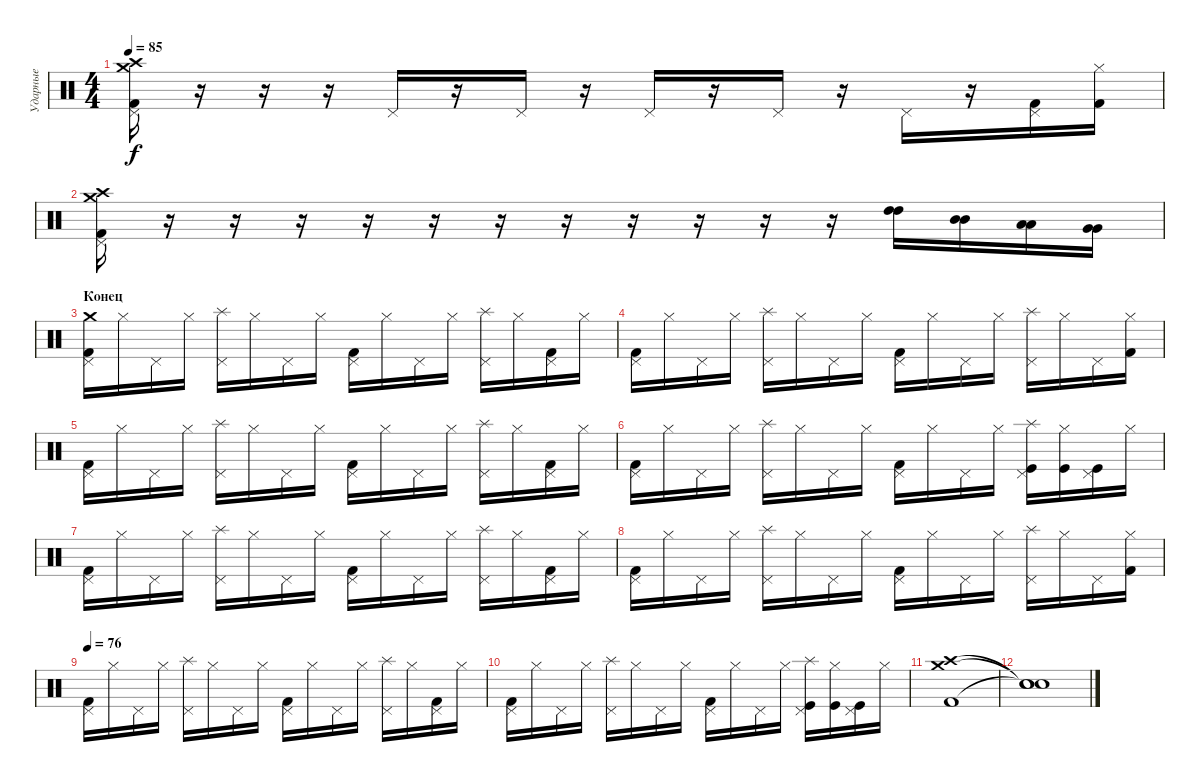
\track ("Ударные" "Ударные") {instrument percussion}
\staff {score}
\articulation defaults
\ts (4 4)
\tempo 85
\clef neutral
\ks c
("Kick (hit) 2" "Pedal Hi-Hat (hit)" "Crash medium (hit)" "Crash high (hit)").16{dy f} r.16 r.16 r.16 "Pedal Hi-Hat (hit)".16 r.16 "Pedal Hi-Hat (hit)".16 r.16 "Pedal Hi-Hat (hit)".16 r.16 "Pedal Hi-Hat (hit)".16 r.16 "Pedal Hi-Hat (hit)".16 r.16 ("Kick (hit) 2" "Pedal Hi-Hat (hit)").16 ("Kick (hit) 2" "Hi-Hat (closed)").16 |
("Kick (hit) 2" "Pedal Hi-Hat (hit)" "Crash medium (hit)" "Crash high (hit)").16 r.16 r.16 r.16 r.16 r.16 r.16 r.16 r.16 r.16 r.16 r.16 ("High Tom (hit)" "High Tom (hit)").16 ("Mid Tom (hit)" "Mid Tom (hit)").16 ("Low Tom (hit)" "Low Tom (hit)").16 ("Very Low Tom (hit)" "Very Low Tom (hit)").16 |
\section ("" "Конец")
("Kick (hit) 2" "Pedal Hi-Hat (hit)" "Crash medium (hit)").16 "Hi-Hat (closed)".16 "Pedal Hi-Hat (hit)".16 "Hi-Hat (closed)".16 ("Pedal Hi-Hat (hit)" "Splash (hit)").16 "Hi-Hat (closed)".16 "Pedal Hi-Hat (hit)".16 "Hi-Hat (closed)".16 ("Kick (hit) 2" "Pedal Hi-Hat (hit)").16 "Hi-Hat (closed)".16 "Pedal Hi-Hat (hit)".16 "Hi-Hat (closed)".16 ("Pedal Hi-Hat (hit)" "Splash (hit)").16 "Hi-Hat (closed)".16 ("Kick (hit) 2" "Pedal Hi-Hat (hit)").16 "Hi-Hat (closed)".16 |
("Kick (hit) 2" "Pedal Hi-Hat (hit)").16 "Hi-Hat (closed)".16 "Pedal Hi-Hat (hit)".16 "Hi-Hat (closed)".16 ("Pedal Hi-Hat (hit)" "Splash (hit)").16 "Hi-Hat (closed)".16 "Pedal Hi-Hat (hit)".16 "Hi-Hat (closed)".16 ("Kick (hit) 2" "Pedal Hi-Hat (hit)").16 "Hi-Hat (closed)".16 "Pedal Hi-Hat (hit)".16 "Hi-Hat (closed)".16 ("Pedal Hi-Hat (hit)" "Splash (hit)").16 "Hi-Hat (closed)".16 "Pedal Hi-Hat (hit)".16 ("Kick (hit) 2" "Hi-Hat (closed)").16 |
("Kick (hit) 2" "Pedal Hi-Hat (hit)").16 "Hi-Hat (closed)".16 "Pedal Hi-Hat (hit)".16 "Hi-Hat (closed)".16 ("Pedal Hi-Hat (hit)" "Splash (hit)").16 "Hi-Hat (closed)".16 "Pedal Hi-Hat (hit)".16 "Hi-Hat (closed)".16 ("Kick (hit) 2" "Pedal Hi-Hat (hit)").16 "Hi-Hat (closed)".16 "Pedal Hi-Hat (hit)".16 "Hi-Hat (closed)".16 ("Pedal Hi-Hat (hit)" "Splash (hit)").16 "Hi-Hat (closed)".16 ("Kick (hit) 2" "Pedal Hi-Hat (hit)").16 "Hi-Hat (closed)".16 |
("Kick (hit) 2" "Pedal Hi-Hat (hit)").16 "Hi-Hat (closed)".16 "Pedal Hi-Hat (hit)".16 "Hi-Hat (closed)".16 ("Pedal Hi-Hat (hit)" "Splash (hit)").16 "Hi-Hat (closed)".16 "Pedal Hi-Hat (hit)".16 "Hi-Hat (closed)".16 ("Kick (hit) 2" "Pedal Hi-Hat (hit)").16 "Hi-Hat (closed)".16 "Pedal Hi-Hat (hit)".16 "Hi-Hat (closed)".16 ("Kick (hit)" "Pedal Hi-Hat (hit)" "Splash (hit)").16 ("Kick (hit)" "Hi-Hat (closed)").16 ("Kick (hit)" "Pedal Hi-Hat (hit)").16 "Hi-Hat (closed)".16 |
("Kick (hit) 2" "Pedal Hi-Hat (hit)").16 "Hi-Hat (closed)".16 "Pedal Hi-Hat (hit)".16 "Hi-Hat (closed)".16 ("Pedal Hi-Hat (hit)" "Splash (hit)").16 "Hi-Hat (closed)".16 "Pedal Hi-Hat (hit)".16 "Hi-Hat (closed)".16 ("Kick (hit) 2" "Pedal Hi-Hat (hit)").16 "Hi-Hat (closed)".16 "Pedal Hi-Hat (hit)".16 "Hi-Hat (closed)".16 ("Pedal Hi-Hat (hit)" "Splash (hit)").16 "Hi-Hat (closed)".16 ("Kick (hit) 2" "Pedal Hi-Hat (hit)").16 "Hi-Hat (closed)".16 |
("Kick (hit) 2" "Pedal Hi-Hat (hit)").16 "Hi-Hat (closed)".16 "Pedal Hi-Hat (hit)".16 "Hi-Hat (closed)".16 ("Pedal Hi-Hat (hit)" "Splash (hit)").16 "Hi-Hat (closed)".16 "Pedal Hi-Hat (hit)".16 "Hi-Hat (closed)".16 ("Kick (hit) 2" "Pedal Hi-Hat (hit)").16 "Hi-Hat (closed)".16 "Pedal Hi-Hat (hit)".16 "Hi-Hat (closed)".16 ("Pedal Hi-Hat (hit)" "Splash (hit)").16 "Hi-Hat (closed)".16 "Pedal Hi-Hat (hit)".16 ("Kick (hit) 2" "Hi-Hat (closed)").16 |
\tempo 76
("Kick (hit) 2" "Pedal Hi-Hat (hit)").16 "Hi-Hat (closed)".16 "Pedal Hi-Hat (hit)".16 "Hi-Hat (closed)".16 ("Pedal Hi-Hat (hit)" "Splash (hit)").16 "Hi-Hat (closed)".16 "Pedal Hi-Hat (hit)".16 "Hi-Hat (closed)".16 ("Kick (hit) 2" "Pedal Hi-Hat (hit)").16 "Hi-Hat (closed)".16 "Pedal Hi-Hat (hit)".16 "Hi-Hat (closed)".16 ("Pedal Hi-Hat (hit)" "Splash (hit)").16 "Hi-Hat (closed)".16 ("Kick (hit) 2" "Pedal Hi-Hat (hit)").16 "Hi-Hat (closed)".16 |
("Kick (hit) 2" "Pedal Hi-Hat (hit)").16 "Hi-Hat (closed)".16 "Pedal Hi-Hat (hit)".16 "Hi-Hat (closed)".16 ("Pedal Hi-Hat (hit)" "Splash (hit)").16 "Hi-Hat (closed)".16 "Pedal Hi-Hat (hit)".16 "Hi-Hat (closed)".16 ("Kick (hit) 2" "Pedal Hi-Hat (hit)").16 "Hi-Hat (closed)".16 "Pedal Hi-Hat (hit)".16 "Hi-Hat (closed)".16 ("Kick (hit)" "Pedal Hi-Hat (hit)" "Splash (hit)").16 ("Kick (hit)" "Hi-Hat (closed)").16 ("Kick (hit)" "Pedal Hi-Hat (hit)").16 "Hi-Hat (closed)".16 |
("Kick (hit) 2" "Crash high (hit)" "Crash medium (hit)").1 |
("Snare (hit)"{t} "Snare (hit)"{t} "Snare (hit)"{t}).1
